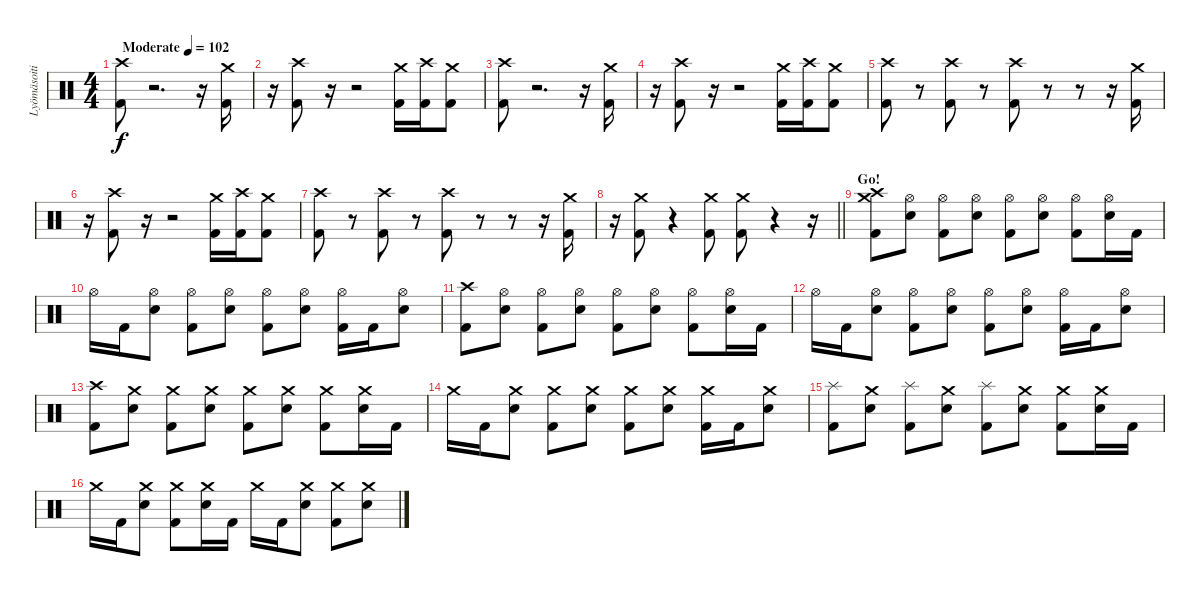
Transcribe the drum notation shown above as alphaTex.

\track ("Lyömäsoitin" "Lyömäsoiti") {instrument percussion}
\staff {score}
\articulation defaults
\ts (4 4)
\tempo (102 "Moderate")
\clef neutral
\ks c
("Crash high (hit)" "Kick (hit) 2").8{dy f} r.2{d volume 0} r.16 ("Crash medium (hit)" "Kick (hit) 2").16{volume 16} |
r.16 ("Crash high (hit)" "Kick (hit) 2").8 r.16{volume 0} r.2 ("Crash medium (hit)" "Kick (hit) 2").16{volume 16} ("Crash high (hit)" "Kick (hit) 2").16 ("Crash medium (hit)" "Kick (hit) 2").8 |
("Crash high (hit)" "Kick (hit) 2").8 r.2{d volume 0} r.16 ("Crash medium (hit)" "Kick (hit) 2").16{volume 16} |
r.16 ("Crash high (hit)" "Kick (hit) 2").8 r.16{volume 0} r.2 ("Crash medium (hit)" "Kick (hit) 2").16{volume 16} ("Crash high (hit)" "Kick (hit) 2").16 ("Crash medium (hit)" "Kick (hit) 2").8 |
("Crash high (hit)" "Kick (hit) 2").8 r.8{volume 0} ("Crash high (hit)" "Kick (hit) 2").8{volume 16} r.8{volume 0} ("Crash high (hit)" "Kick (hit) 2").8{volume 16} r.8{volume 0} r.8 r.16 ("Crash medium (hit)" "Kick (hit) 2").16{volume 16} |
r.16 ("Crash high (hit)" "Kick (hit) 2").8 r.16{volume 0} r.2 ("Crash medium (hit)" "Kick (hit) 2").16{volume 16} ("Crash high (hit)" "Kick (hit) 2").16 ("Crash medium (hit)" "Kick (hit) 2").8 |
("Crash high (hit)" "Kick (hit) 2").8 r.8{volume 0} ("Crash high (hit)" "Kick (hit) 2").8{volume 16} r.8{volume 0} ("Crash high (hit)" "Kick (hit) 2").8{volume 16} r.8{volume 0} r.8 r.16 ("Crash medium (hit)" "Kick (hit) 2").16{volume 16} |
\barLineRight lightlight
r.16 ("Crash medium (hit)" "Kick (hit) 2").8 r.4{volume 0} ("Crash medium (hit)" "Kick (hit) 2").8{volume 16} ("Crash medium (hit)" "Kick (hit) 2").8 r.4{volume 0} r.16 |
\section ("" "Go!")
("Crash medium (hit)" "Crash high (hit)" "Kick (hit) 2").8{volume 16} ("Hi-Hat (open)" "Electric Snare (hit)").8 ("Hi-Hat (open)" "Kick (hit) 2").8 ("Hi-Hat (open)" "Electric Snare (hit)").8 ("Hi-Hat (open)" "Kick (hit) 2").8 ("Hi-Hat (open)" "Electric Snare (hit)").8 ("Hi-Hat (open)" "Kick (hit) 2").8 ("Hi-Hat (open)" "Electric Snare (hit)").16 "Kick (hit) 2".16 |
"Hi-Hat (open)".16 "Kick (hit) 2".16 ("Hi-Hat (open)" "Electric Snare (hit)").8 ("Hi-Hat (open)" "Kick (hit) 2").8 ("Hi-Hat (open)" "Electric Snare (hit)").8 ("Hi-Hat (open)" "Kick (hit) 2").8 ("Hi-Hat (open)" "Electric Snare (hit)").8 ("Hi-Hat (open)" "Kick (hit) 2").16 "Kick (hit) 2".16 ("Hi-Hat (open)" "Electric Snare (hit)").8 |
("Crash high (hit)" "Kick (hit) 2").8 ("Hi-Hat (open)" "Electric Snare (hit)").8 ("Hi-Hat (open)" "Kick (hit) 2").8 ("Hi-Hat (open)" "Electric Snare (hit)").8 ("Hi-Hat (open)" "Kick (hit) 2").8 ("Hi-Hat (open)" "Electric Snare (hit)").8 ("Hi-Hat (open)" "Kick (hit) 2").8 ("Hi-Hat (open)" "Electric Snare (hit)").16 "Kick (hit) 2".16 |
"Hi-Hat (open)".16 "Kick (hit) 2".16 ("Hi-Hat (open)" "Electric Snare (hit)").8 ("Hi-Hat (open)" "Kick (hit) 2").8 ("Hi-Hat (open)" "Electric Snare (hit)").8 ("Hi-Hat (open)" "Kick (hit) 2").8 ("Hi-Hat (open)" "Electric Snare (hit)").8 ("Hi-Hat (open)" "Kick (hit) 2").16 "Kick (hit) 2".16 ("Hi-Hat (open)" "Electric Snare (hit)").8 |
("Crash high (hit)" "Kick (hit) 2").8 ("Crash medium (hit)" "Electric Snare (hit)").8 ("Crash medium (hit)" "Kick (hit) 2").8 ("Crash medium (hit)" "Electric Snare (hit)").8 ("Crash medium (hit)" "Kick (hit) 2").8 ("Crash medium (hit)" "Electric Snare (hit)").8 ("Crash medium (hit)" "Kick (hit) 2").8 ("Crash medium (hit)" "Electric Snare (hit)").16 "Kick (hit) 2".16 |
"Crash medium (hit)".16 "Kick (hit) 2".16 ("Crash medium (hit)" "Electric Snare (hit)").8 ("Crash medium (hit)" "Kick (hit) 2").8 ("Crash medium (hit)" "Electric Snare (hit)").8 ("Crash medium (hit)" "Kick (hit) 2").8 ("Crash medium (hit)" "Electric Snare (hit)").8 ("Crash medium (hit)" "Kick (hit) 2").16 "Kick (hit) 2".16 ("Crash medium (hit)" "Electric Snare (hit)").8 |
("Splash (hit)" "Kick (hit) 2").8 ("Crash medium (hit)" "Electric Snare (hit)").8 ("Splash (hit)" "Kick (hit) 2").8 ("Crash medium (hit)" "Electric Snare (hit)").8 ("Splash (hit)" "Kick (hit) 2").8 ("Crash medium (hit)" "Electric Snare (hit)").8 ("Crash medium (hit)" "Kick (hit) 2").8 ("Crash medium (hit)" "Electric Snare (hit)").16 "Kick (hit) 2".16 |
"Crash medium (hit)".16 "Kick (hit) 2".16 ("Crash medium (hit)" "Electric Snare (hit)").8 ("Crash medium (hit)" "Kick (hit) 2").8 ("Crash medium (hit)" "Electric Snare (hit)").16 "Kick (hit) 2".16 "Crash medium (hit)".16 "Kick (hit) 2".16 ("Crash medium (hit)" "Electric Snare (hit)").8 ("Crash medium (hit)" "Kick (hit) 2").8 ("Crash medium (hit)" "Electric Snare (hit)").8
